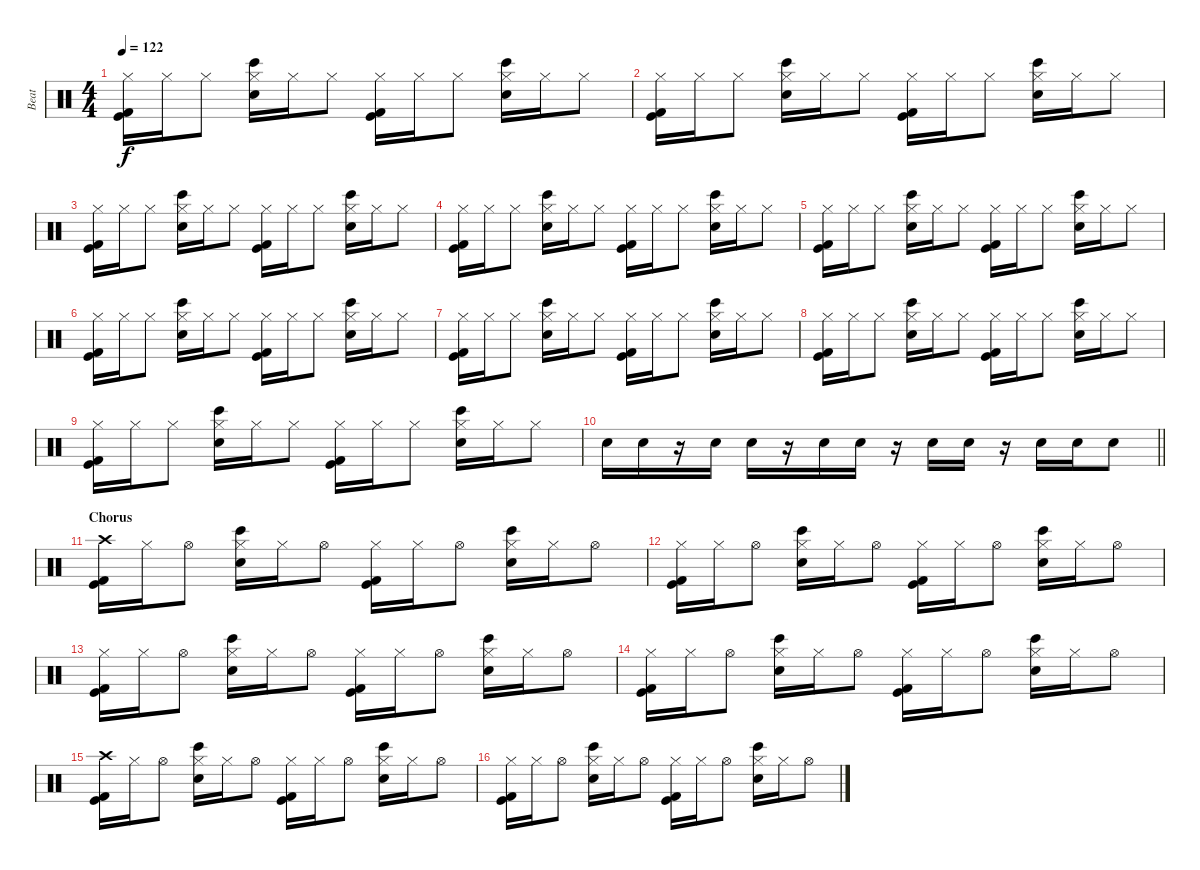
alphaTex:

\track ("Beat" "Beat") {instrument percussion}
\staff {score}
\articulation defaults
\ts (4 4)
\tempo 122
\clef neutral
\ks c
("Hi-Hat (closed)" "Kick (hit)" "Kick (hit) 2").16{dy f} "Hi-Hat (closed)".16 "Hi-Hat (closed)".8 ("Hi-Hat (closed)" "Bongo High (hit)" "Electric Snare (hit)").16 "Hi-Hat (closed)".16 "Hi-Hat (closed)".8 ("Hi-Hat (closed)" "Kick (hit)" "Kick (hit) 2").16 "Hi-Hat (closed)".16 "Hi-Hat (closed)".8 ("Hi-Hat (closed)" "Bongo High (hit)" "Electric Snare (hit)").16 "Hi-Hat (closed)".16 "Hi-Hat (closed)".8 |
("Hi-Hat (closed)" "Kick (hit)" "Kick (hit) 2").16 "Hi-Hat (closed)".16 "Hi-Hat (closed)".8 ("Hi-Hat (closed)" "Bongo High (hit)" "Electric Snare (hit)").16 "Hi-Hat (closed)".16 "Hi-Hat (closed)".8 ("Hi-Hat (closed)" "Kick (hit)" "Kick (hit) 2").16 "Hi-Hat (closed)".16 "Hi-Hat (closed)".8 ("Hi-Hat (closed)" "Bongo High (hit)" "Electric Snare (hit)").16 "Hi-Hat (closed)".16 "Hi-Hat (closed)".8 |
("Hi-Hat (closed)" "Kick (hit)" "Kick (hit) 2").16 "Hi-Hat (closed)".16 "Hi-Hat (closed)".8 ("Hi-Hat (closed)" "Bongo High (hit)" "Electric Snare (hit)").16 "Hi-Hat (closed)".16 "Hi-Hat (closed)".8 ("Hi-Hat (closed)" "Kick (hit)" "Kick (hit) 2").16 "Hi-Hat (closed)".16 "Hi-Hat (closed)".8 ("Hi-Hat (closed)" "Bongo High (hit)" "Electric Snare (hit)").16 "Hi-Hat (closed)".16 "Hi-Hat (closed)".8 |
("Hi-Hat (closed)" "Kick (hit)" "Kick (hit) 2").16 "Hi-Hat (closed)".16 "Hi-Hat (closed)".8 ("Hi-Hat (closed)" "Bongo High (hit)" "Electric Snare (hit)").16 "Hi-Hat (closed)".16 "Hi-Hat (closed)".8 ("Hi-Hat (closed)" "Kick (hit)" "Kick (hit) 2").16 "Hi-Hat (closed)".16 "Hi-Hat (closed)".8 ("Hi-Hat (closed)" "Bongo High (hit)" "Electric Snare (hit)").16 "Hi-Hat (closed)".16 "Hi-Hat (closed)".8 |
("Hi-Hat (closed)" "Kick (hit)" "Kick (hit) 2").16 "Hi-Hat (closed)".16 "Hi-Hat (closed)".8 ("Hi-Hat (closed)" "Bongo High (hit)" "Electric Snare (hit)").16 "Hi-Hat (closed)".16 "Hi-Hat (closed)".8 ("Hi-Hat (closed)" "Kick (hit)" "Kick (hit) 2").16 "Hi-Hat (closed)".16 "Hi-Hat (closed)".8 ("Hi-Hat (closed)" "Bongo High (hit)" "Electric Snare (hit)").16 "Hi-Hat (closed)".16 "Hi-Hat (closed)".8 |
("Hi-Hat (closed)" "Kick (hit)" "Kick (hit) 2").16 "Hi-Hat (closed)".16 "Hi-Hat (closed)".8 ("Hi-Hat (closed)" "Bongo High (hit)" "Electric Snare (hit)").16 "Hi-Hat (closed)".16 "Hi-Hat (closed)".8 ("Hi-Hat (closed)" "Kick (hit)" "Kick (hit) 2").16 "Hi-Hat (closed)".16 "Hi-Hat (closed)".8 ("Hi-Hat (closed)" "Bongo High (hit)" "Electric Snare (hit)").16 "Hi-Hat (closed)".16 "Hi-Hat (closed)".8 |
("Hi-Hat (closed)" "Kick (hit)" "Kick (hit) 2").16 "Hi-Hat (closed)".16 "Hi-Hat (closed)".8 ("Hi-Hat (closed)" "Bongo High (hit)" "Electric Snare (hit)").16 "Hi-Hat (closed)".16 "Hi-Hat (closed)".8 ("Hi-Hat (closed)" "Kick (hit)" "Kick (hit) 2").16 "Hi-Hat (closed)".16 "Hi-Hat (closed)".8 ("Hi-Hat (closed)" "Bongo High (hit)" "Electric Snare (hit)").16 "Hi-Hat (closed)".16 "Hi-Hat (closed)".8 |
("Hi-Hat (closed)" "Kick (hit)" "Kick (hit) 2").16 "Hi-Hat (closed)".16 "Hi-Hat (closed)".8 ("Hi-Hat (closed)" "Bongo High (hit)" "Electric Snare (hit)").16 "Hi-Hat (closed)".16 "Hi-Hat (closed)".8 ("Hi-Hat (closed)" "Kick (hit)" "Kick (hit) 2").16 "Hi-Hat (closed)".16 "Hi-Hat (closed)".8 ("Hi-Hat (closed)" "Bongo High (hit)" "Electric Snare (hit)").16 "Hi-Hat (closed)".16 "Hi-Hat (closed)".8 |
("Hi-Hat (closed)" "Kick (hit)" "Kick (hit) 2").16 "Hi-Hat (closed)".16 "Hi-Hat (closed)".8 ("Hi-Hat (closed)" "Bongo High (hit)" "Electric Snare (hit)").16 "Hi-Hat (closed)".16 "Hi-Hat (closed)".8 ("Hi-Hat (closed)" "Kick (hit)" "Kick (hit) 2").16 "Hi-Hat (closed)".16 "Hi-Hat (closed)".8 ("Hi-Hat (closed)" "Bongo High (hit)" "Electric Snare (hit)").16 "Hi-Hat (closed)".16 "Hi-Hat (closed)".8 |
\barLineRight lightlight "Electric Snare (hit)".16{volume 14} "Electric Snare (hit)".16
r.16 "Electric Snare (hit)".16 "Electric Snare (hit)".16 r.16 "Electric Snare (hit)".16 "Electric Snare (hit)".16 r.16 "Electric Snare (hit)".16 "Electric Snare (hit)".16 r.16 "Electric Snare (hit)".16 "Electric Snare (hit)".16 "Electric Snare (hit)".8 |
\section ("" "Chorus")
("Crash high (hit)" "Kick (hit)" "Kick (hit) 2").16 "Hi-Hat (closed)".16 "Hi-Hat (open)".8 ("Hi-Hat (closed)" "Bongo High (hit)" "Electric Snare (hit)").16 "Hi-Hat (closed)".16 "Hi-Hat (open)".8 ("Hi-Hat (closed)" "Kick (hit)" "Kick (hit) 2").16 "Hi-Hat (closed)".16 "Hi-Hat (open)".8 ("Hi-Hat (closed)" "Bongo High (hit)" "Electric Snare (hit)").16 "Hi-Hat (closed)".16 "Hi-Hat (open)".8 |
("Hi-Hat (closed)" "Kick (hit)" "Kick (hit) 2").16 "Hi-Hat (closed)".16 "Hi-Hat (open)".8 ("Hi-Hat (closed)" "Bongo High (hit)" "Electric Snare (hit)").16 "Hi-Hat (closed)".16 "Hi-Hat (open)".8 ("Hi-Hat (closed)" "Kick (hit)" "Kick (hit) 2").16 "Hi-Hat (closed)".16 "Hi-Hat (open)".8 ("Hi-Hat (closed)" "Bongo High (hit)" "Electric Snare (hit)").16 "Hi-Hat (closed)".16 "Hi-Hat (open)".8 |
("Hi-Hat (closed)" "Kick (hit)" "Kick (hit) 2").16 "Hi-Hat (closed)".16 "Hi-Hat (open)".8 ("Hi-Hat (closed)" "Bongo High (hit)" "Electric Snare (hit)").16 "Hi-Hat (closed)".16 "Hi-Hat (open)".8 ("Hi-Hat (closed)" "Kick (hit)" "Kick (hit) 2").16 "Hi-Hat (closed)".16 "Hi-Hat (open)".8 ("Hi-Hat (closed)" "Bongo High (hit)" "Electric Snare (hit)").16 "Hi-Hat (closed)".16 "Hi-Hat (open)".8 |
("Hi-Hat (closed)" "Kick (hit)" "Kick (hit) 2").16 "Hi-Hat (closed)".16 "Hi-Hat (open)".8 ("Hi-Hat (closed)" "Bongo High (hit)" "Electric Snare (hit)").16 "Hi-Hat (closed)".16 "Hi-Hat (open)".8 ("Hi-Hat (closed)" "Kick (hit)" "Kick (hit) 2").16 "Hi-Hat (closed)".16 "Hi-Hat (open)".8 ("Hi-Hat (closed)" "Bongo High (hit)" "Electric Snare (hit)").16 "Hi-Hat (closed)".16 "Hi-Hat (open)".8 |
("Crash high (hit)" "Kick (hit)" "Kick (hit) 2").16 "Hi-Hat (closed)".16 "Hi-Hat (open)".8 ("Hi-Hat (closed)" "Bongo High (hit)" "Electric Snare (hit)").16 "Hi-Hat (closed)".16 "Hi-Hat (open)".8 ("Hi-Hat (closed)" "Kick (hit)" "Kick (hit) 2").16 "Hi-Hat (closed)".16 "Hi-Hat (open)".8 ("Hi-Hat (closed)" "Bongo High (hit)" "Electric Snare (hit)").16 "Hi-Hat (closed)".16 "Hi-Hat (open)".8 |
("Hi-Hat (closed)" "Kick (hit)" "Kick (hit) 2").16 "Hi-Hat (closed)".16 "Hi-Hat (open)".8 ("Hi-Hat (closed)" "Bongo High (hit)" "Electric Snare (hit)").16 "Hi-Hat (closed)".16 "Hi-Hat (open)".8 ("Hi-Hat (closed)" "Kick (hit)" "Kick (hit) 2").16 "Hi-Hat (closed)".16 "Hi-Hat (open)".8 ("Hi-Hat (closed)" "Bongo High (hit)" "Electric Snare (hit)").16 "Hi-Hat (closed)".16 "Hi-Hat (open)".8
